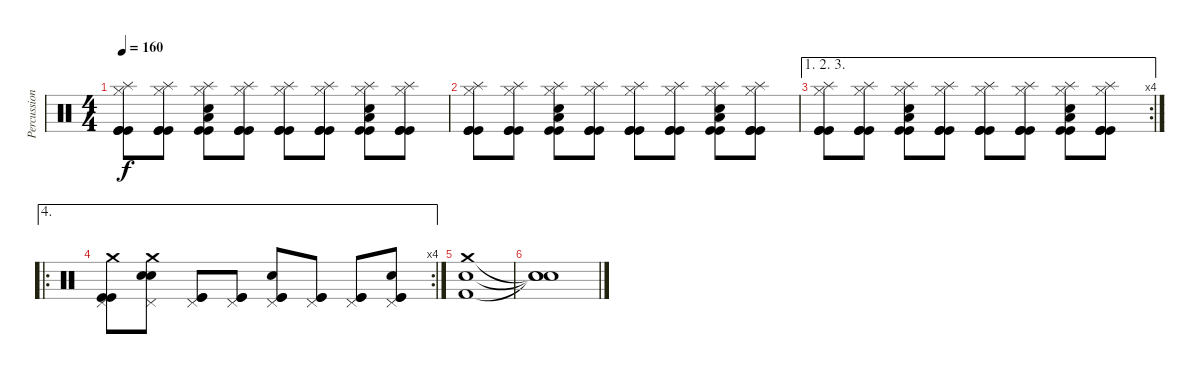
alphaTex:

\track ("Percussion" "Percussion") {instrument percussion}
\staff {score}
\articulation defaults
\ts (4 4)
\tempo 160
\clef neutral
\ks c
("Hi-Hat (closed)" "Splash (hit)" "Kick (hit)" "Kick (hit)" "Kick (hit)").8{dy f} ("Hi-Hat (closed)" "Splash (hit)" "Kick (hit)" "Kick (hit)" "Kick (hit)").8 ("Hi-Hat (closed)" "Splash (hit)" "Low Tom (hit)" "Electric Snare (hit)" "Kick (hit)" "Kick (hit)").8 ("Hi-Hat (closed)" "Splash (hit)" "Kick (hit)" "Kick (hit)" "Kick (hit)").8 ("Hi-Hat (closed)" "Splash (hit)" "Kick (hit)" "Kick (hit)" "Kick (hit)").8 ("Hi-Hat (closed)" "Splash (hit)" "Kick (hit)" "Kick (hit)" "Kick (hit)").8 ("Hi-Hat (closed)" "Splash (hit)" "Low Tom (hit)" "Electric Snare (hit)" "Kick (hit)" "Kick (hit)").8 ("Hi-Hat (closed)" "Splash (hit)" "Kick (hit)" "Kick (hit)" "Kick (hit)").8 |
("Hi-Hat (closed)" "Splash (hit)" "Kick (hit)" "Kick (hit)" "Kick (hit)").8 ("Hi-Hat (closed)" "Splash (hit)" "Kick (hit)" "Kick (hit)" "Kick (hit)").8 ("Hi-Hat (closed)" "Splash (hit)" "Low Tom (hit)" "Electric Snare (hit)" "Kick (hit)" "Kick (hit)").8 ("Hi-Hat (closed)" "Splash (hit)" "Kick (hit)" "Kick (hit)" "Kick (hit)").8 ("Hi-Hat (closed)" "Splash (hit)" "Kick (hit)" "Kick (hit)" "Kick (hit)").8 ("Hi-Hat (closed)" "Splash (hit)" "Kick (hit)" "Kick (hit)" "Kick (hit)").8 ("Hi-Hat (closed)" "Splash (hit)" "Low Tom (hit)" "Electric Snare (hit)" "Kick (hit)" "Kick (hit)").8 ("Hi-Hat (closed)" "Splash (hit)" "Kick (hit)" "Kick (hit)" "Kick (hit)").8 |
\ae (1 2 3)
\rc 4
("Hi-Hat (closed)" "Splash (hit)" "Kick (hit)" "Kick (hit)" "Kick (hit)").8 ("Hi-Hat (closed)" "Splash (hit)" "Kick (hit)" "Kick (hit)" "Kick (hit)").8 ("Hi-Hat (closed)" "Splash (hit)" "Low Tom (hit)" "Electric Snare (hit)" "Kick (hit)" "Kick (hit)").8 ("Hi-Hat (closed)" "Splash (hit)" "Kick (hit)" "Kick (hit)" "Kick (hit)").8 ("Hi-Hat (closed)" "Splash (hit)" "Kick (hit)" "Kick (hit)" "Kick (hit)").8 ("Hi-Hat (closed)" "Splash (hit)" "Kick (hit)" "Kick (hit)" "Kick (hit)").8 ("Hi-Hat (closed)" "Splash (hit)" "Low Tom (hit)" "Electric Snare (hit)" "Kick (hit)" "Kick (hit)").8 ("Hi-Hat (closed)" "Splash (hit)" "Kick (hit)" "Kick (hit)" "Kick (hit)").8 |
\ae 4
\ro
\rc 4
("Pedal Hi-Hat (hit)" "Crash medium (hit)" "Kick (hit)" "Kick (hit)").8 ("Pedal Hi-Hat (hit)" "Crash medium (hit)" "Electric Snare (hit)" "Electric Snare (hit)").8 ("Pedal Hi-Hat (hit)" "Kick (hit)" "Kick (hit)").8 ("Pedal Hi-Hat (hit)" "Kick (hit)" "Kick (hit)").8 ("Pedal Hi-Hat (hit)" "Electric Snare (hit)" "Kick (hit)" "Kick (hit)").8 ("Pedal Hi-Hat (hit)" "Kick (hit)" "Kick (hit)").8 ("Pedal Hi-Hat (hit)" "Kick (hit)" "Kick (hit)").8 ("Pedal Hi-Hat (hit)" "Electric Snare (hit)" "Kick (hit)" "Kick (hit)").8 |
("Electric Snare (hit)" "Crash medium (hit)" "Kick (hit) 2").1 |
("Snare (hit)"{t} "Snare (hit)"{t} "Snare (hit)"{t}).1
